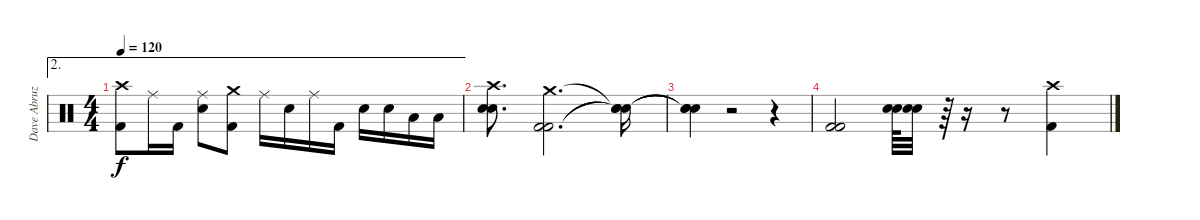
\track ("Dave Abruzzesse" "Dave Abruz") {instrument percussion}
\staff {score}
\articulation defaults
\ae 2
\ts (4 4)
\tempo 120
\clef neutral
\ks c
("Crash high (hit)" "Kick (hit) 2").8{dy f} "Ride (middle)".16 "Kick (hit) 2".16 ("Ride (middle)" "Electric Snare (hit)").8 ("Crash medium (hit)" "Kick (hit) 2").8 "Ride (middle)".16 "Electric Snare (hit)".16 "Ride (middle)".16 "Kick (hit) 2".16 "Electric Snare (hit)".16 "Electric Snare (hit)".16 "Low Tom (hit)".16 "Low Tom (hit)".16 |
("Crash high (hit)" "Snare (hit) 2" "Snare (hit) 2").8{d} ("Crash medium (hit)" "Kick (hit) 2" "Kick (hit) 2").2{d} ("Snare (hit)"{t} "Snare (hit)"{t} "Snare (hit)"{t}).16 |
("Snare (hit)"{t} "Snare (hit)"{t} "Snare (hit)"{t}).4 r.2 r.4 |
("Kick (hit) 2" "Kick (hit) 2").2 ("Snare (hit) 2" "Snare (hit) 2").64 ("Snare (hit) 2" "Snare (hit) 2").32 r.64 r.16 r.8 ("Crash high (hit)" "Kick (hit) 2").4
